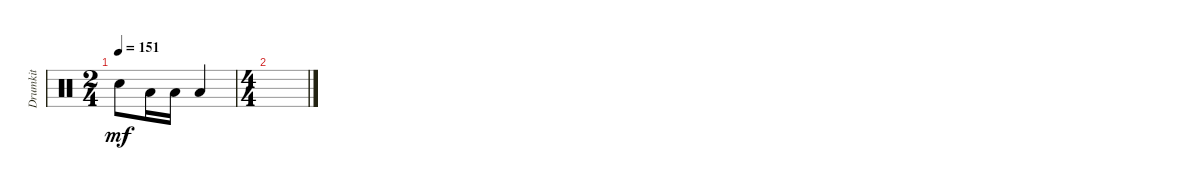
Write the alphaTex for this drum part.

\track ("Drumkit" "Drumkit") {instrument percussion}
\staff {score}
\articulation defaults
\ts (2 4)
\tempo 151
\clef neutral
\ks c "Snare (hit) 2".8{dy mf} "Low Floor Tom (hit)".16 "Low Floor Tom (hit)".16 "Low Floor Tom (hit)".4
|
\ts (4 4)
